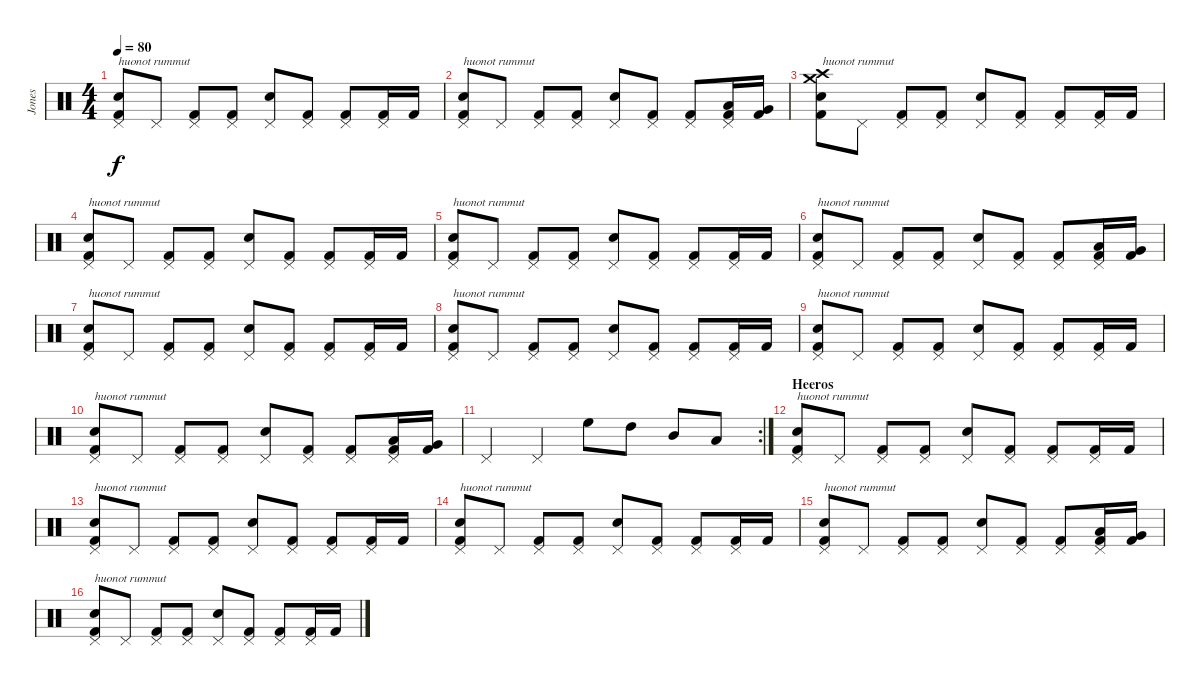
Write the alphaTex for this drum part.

\track ("Jones" "Jones") {instrument percussion}
\staff {score}
\articulation defaults
\ts (4 4)
\tempo 80
\clef neutral
\ks c
("Pedal Hi-Hat (hit)" "Snare (hit) 2" "Kick (hit) 2").8{txt "huonot rummut" dy f} "Pedal Hi-Hat (hit)".8 ("Pedal Hi-Hat (hit)" "Kick (hit) 2").8 ("Pedal Hi-Hat (hit)" "Kick (hit) 2").8 ("Pedal Hi-Hat (hit)" "Snare (hit) 2").8 ("Pedal Hi-Hat (hit)" "Kick (hit) 2").8 ("Pedal Hi-Hat (hit)" "Kick (hit) 2").8 ("Pedal Hi-Hat (hit)" "Kick (hit) 2").16 "Kick (hit) 2".16 |
("Pedal Hi-Hat (hit)" "Snare (hit) 2" "Kick (hit) 2").8{txt "huonot rummut"} "Pedal Hi-Hat (hit)".8 ("Pedal Hi-Hat (hit)" "Kick (hit) 2").8 ("Pedal Hi-Hat (hit)" "Kick (hit) 2").8 ("Pedal Hi-Hat (hit)" "Snare (hit) 2").8 ("Pedal Hi-Hat (hit)" "Kick (hit) 2").8 ("Pedal Hi-Hat (hit)" "Kick (hit) 2").8 ("Pedal Hi-Hat (hit)" "Low Tom (hit)" "Kick (hit) 2").16 ("Very Low Tom (hit)" "Kick (hit) 2").16 |
("Crash medium (hit)" "Crash high (hit)" "Snare (hit) 2" "Kick (hit) 2").8{txt "huonot rummut"} "Pedal Hi-Hat (hit)".8 ("Pedal Hi-Hat (hit)" "Kick (hit) 2").8 ("Pedal Hi-Hat (hit)" "Kick (hit) 2").8 ("Pedal Hi-Hat (hit)" "Snare (hit) 2").8 ("Pedal Hi-Hat (hit)" "Kick (hit) 2").8 ("Pedal Hi-Hat (hit)" "Kick (hit) 2").8 ("Pedal Hi-Hat (hit)" "Kick (hit) 2").16 "Kick (hit) 2".16 |
("Pedal Hi-Hat (hit)" "Snare (hit) 2" "Kick (hit) 2").8{txt "huonot rummut"} "Pedal Hi-Hat (hit)".8 ("Pedal Hi-Hat (hit)" "Kick (hit) 2").8 ("Pedal Hi-Hat (hit)" "Kick (hit) 2").8 ("Pedal Hi-Hat (hit)" "Snare (hit) 2").8 ("Pedal Hi-Hat (hit)" "Kick (hit) 2").8 ("Pedal Hi-Hat (hit)" "Kick (hit) 2").8 ("Pedal Hi-Hat (hit)" "Kick (hit) 2").16 "Kick (hit) 2".16 |
("Pedal Hi-Hat (hit)" "Snare (hit) 2" "Kick (hit) 2").8{txt "huonot rummut"} "Pedal Hi-Hat (hit)".8 ("Pedal Hi-Hat (hit)" "Kick (hit) 2").8 ("Pedal Hi-Hat (hit)" "Kick (hit) 2").8 ("Pedal Hi-Hat (hit)" "Snare (hit) 2").8 ("Pedal Hi-Hat (hit)" "Kick (hit) 2").8 ("Pedal Hi-Hat (hit)" "Kick (hit) 2").8 ("Pedal Hi-Hat (hit)" "Kick (hit) 2").16 "Kick (hit) 2".16 |
("Pedal Hi-Hat (hit)" "Snare (hit) 2" "Kick (hit) 2").8{txt "huonot rummut"} "Pedal Hi-Hat (hit)".8 ("Pedal Hi-Hat (hit)" "Kick (hit) 2").8 ("Pedal Hi-Hat (hit)" "Kick (hit) 2").8 ("Pedal Hi-Hat (hit)" "Snare (hit) 2").8 ("Pedal Hi-Hat (hit)" "Kick (hit) 2").8 ("Pedal Hi-Hat (hit)" "Kick (hit) 2").8 ("Pedal Hi-Hat (hit)" "Low Tom (hit)" "Kick (hit) 2").16 ("Very Low Tom (hit)" "Kick (hit) 2").16 |
("Pedal Hi-Hat (hit)" "Snare (hit) 2" "Kick (hit) 2").8{txt "huonot rummut"} "Pedal Hi-Hat (hit)".8 ("Pedal Hi-Hat (hit)" "Kick (hit) 2").8 ("Pedal Hi-Hat (hit)" "Kick (hit) 2").8 ("Pedal Hi-Hat (hit)" "Snare (hit) 2").8 ("Pedal Hi-Hat (hit)" "Kick (hit) 2").8 ("Pedal Hi-Hat (hit)" "Kick (hit) 2").8 ("Pedal Hi-Hat (hit)" "Kick (hit) 2").16 "Kick (hit) 2".16 |
("Pedal Hi-Hat (hit)" "Snare (hit) 2" "Kick (hit) 2").8{txt "huonot rummut"} "Pedal Hi-Hat (hit)".8 ("Pedal Hi-Hat (hit)" "Kick (hit) 2").8 ("Pedal Hi-Hat (hit)" "Kick (hit) 2").8 ("Pedal Hi-Hat (hit)" "Snare (hit) 2").8 ("Pedal Hi-Hat (hit)" "Kick (hit) 2").8 ("Pedal Hi-Hat (hit)" "Kick (hit) 2").8 ("Pedal Hi-Hat (hit)" "Kick (hit) 2").16 "Kick (hit) 2".16 |
("Pedal Hi-Hat (hit)" "Snare (hit) 2" "Kick (hit) 2").8{txt "huonot rummut"} "Pedal Hi-Hat (hit)".8 ("Pedal Hi-Hat (hit)" "Kick (hit) 2").8 ("Pedal Hi-Hat (hit)" "Kick (hit) 2").8 ("Pedal Hi-Hat (hit)" "Snare (hit) 2").8 ("Pedal Hi-Hat (hit)" "Kick (hit) 2").8 ("Pedal Hi-Hat (hit)" "Kick (hit) 2").8 ("Pedal Hi-Hat (hit)" "Kick (hit) 2").16 "Kick (hit) 2".16 |
("Pedal Hi-Hat (hit)" "Snare (hit) 2" "Kick (hit) 2").8{txt "huonot rummut"} "Pedal Hi-Hat (hit)".8 ("Pedal Hi-Hat (hit)" "Kick (hit) 2").8 ("Pedal Hi-Hat (hit)" "Kick (hit) 2").8 ("Pedal Hi-Hat (hit)" "Snare (hit) 2").8 ("Pedal Hi-Hat (hit)" "Kick (hit) 2").8 ("Pedal Hi-Hat (hit)" "Kick (hit) 2").8 ("Pedal Hi-Hat (hit)" "Low Tom (hit)" "Kick (hit) 2").16 ("Very Low Tom (hit)" "Kick (hit) 2").16 |
\rc 2 "Pedal Hi-Hat (hit)".4 "Pedal Hi-Hat (hit)".4 "High Floor Tom (hit)".8 "High Tom (hit)".8 "Mid Tom (hit)".8 "Low Tom (hit)".8
|
\section ("" "Heeros")
("Pedal Hi-Hat (hit)" "Snare (hit) 2" "Kick (hit) 2").8{txt "huonot rummut"} "Pedal Hi-Hat (hit)".8 ("Pedal Hi-Hat (hit)" "Kick (hit) 2").8 ("Pedal Hi-Hat (hit)" "Kick (hit) 2").8 ("Pedal Hi-Hat (hit)" "Snare (hit) 2").8 ("Pedal Hi-Hat (hit)" "Kick (hit) 2").8 ("Pedal Hi-Hat (hit)" "Kick (hit) 2").8 ("Pedal Hi-Hat (hit)" "Kick (hit) 2").16 "Kick (hit) 2".16 |
("Pedal Hi-Hat (hit)" "Snare (hit) 2" "Kick (hit) 2").8{txt "huonot rummut"} "Pedal Hi-Hat (hit)".8 ("Pedal Hi-Hat (hit)" "Kick (hit) 2").8 ("Pedal Hi-Hat (hit)" "Kick (hit) 2").8 ("Pedal Hi-Hat (hit)" "Snare (hit) 2").8 ("Pedal Hi-Hat (hit)" "Kick (hit) 2").8 ("Pedal Hi-Hat (hit)" "Kick (hit) 2").8 ("Pedal Hi-Hat (hit)" "Kick (hit) 2").16 "Kick (hit) 2".16 |
("Pedal Hi-Hat (hit)" "Snare (hit) 2" "Kick (hit) 2").8{txt "huonot rummut"} "Pedal Hi-Hat (hit)".8 ("Pedal Hi-Hat (hit)" "Kick (hit) 2").8 ("Pedal Hi-Hat (hit)" "Kick (hit) 2").8 ("Pedal Hi-Hat (hit)" "Snare (hit) 2").8 ("Pedal Hi-Hat (hit)" "Kick (hit) 2").8 ("Pedal Hi-Hat (hit)" "Kick (hit) 2").8 ("Pedal Hi-Hat (hit)" "Kick (hit) 2").16 "Kick (hit) 2".16 |
("Pedal Hi-Hat (hit)" "Snare (hit) 2" "Kick (hit) 2").8{txt "huonot rummut"} "Pedal Hi-Hat (hit)".8 ("Pedal Hi-Hat (hit)" "Kick (hit) 2").8 ("Pedal Hi-Hat (hit)" "Kick (hit) 2").8 ("Pedal Hi-Hat (hit)" "Snare (hit) 2").8 ("Pedal Hi-Hat (hit)" "Kick (hit) 2").8 ("Pedal Hi-Hat (hit)" "Kick (hit) 2").8 ("Pedal Hi-Hat (hit)" "Low Tom (hit)" "Kick (hit) 2").16 ("Very Low Tom (hit)" "Kick (hit) 2").16 |
("Pedal Hi-Hat (hit)" "Snare (hit) 2" "Kick (hit) 2").8{txt "huonot rummut"} "Pedal Hi-Hat (hit)".8 ("Pedal Hi-Hat (hit)" "Kick (hit) 2").8 ("Pedal Hi-Hat (hit)" "Kick (hit) 2").8 ("Pedal Hi-Hat (hit)" "Snare (hit) 2").8 ("Pedal Hi-Hat (hit)" "Kick (hit) 2").8 ("Pedal Hi-Hat (hit)" "Kick (hit) 2").8 ("Pedal Hi-Hat (hit)" "Kick (hit) 2").16 "Kick (hit) 2".16
